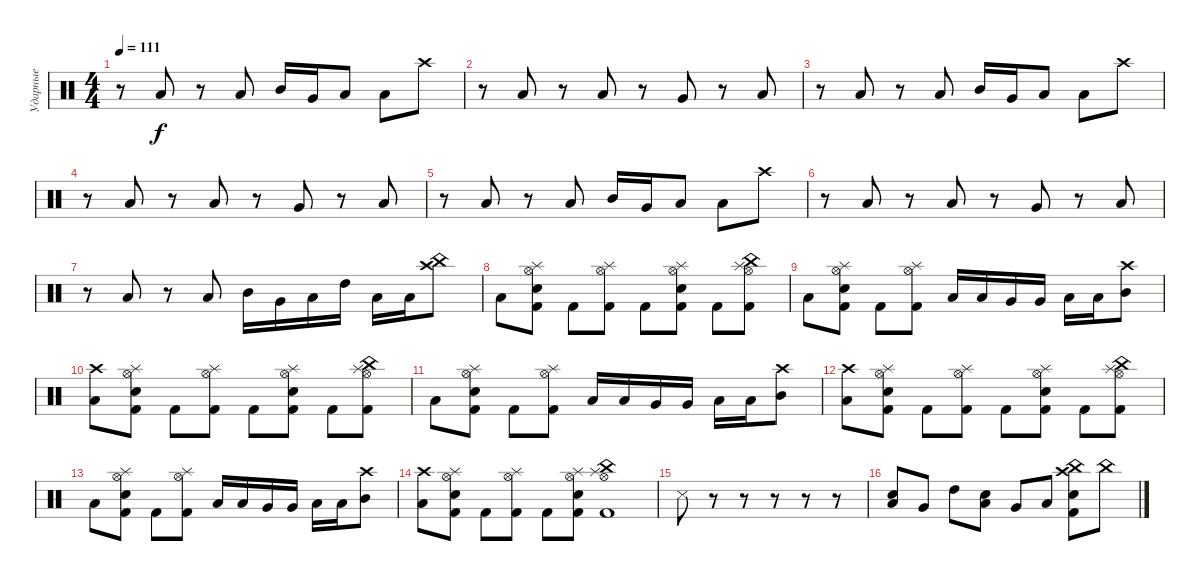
\track ("Ударные" "Ударные") {instrument percussion}
\staff {score}
\articulation defaults
\ts (4 4)
\tempo 111
\clef neutral
\ks c
r.8{dy f} "Low Floor Tom (hit)".8 r.8 "Low Tom (hit)".8 "Mid Tom (hit)".16 "Very Low Tom (hit)".16 "Low Floor Tom (hit)".8 "Low Tom (hit)".8 "Crash high (hit)".8 |
r.8 "Low Floor Tom (hit)".8 r.8 "Low Tom (hit)".8 r.8 "Very Low Tom (hit)".8 r.8 "Low Tom (hit)".8 |
r.8 "Low Floor Tom (hit)".8 r.8 "Low Tom (hit)".8 "Mid Tom (hit)".16 "Very Low Tom (hit)".16 "Low Floor Tom (hit)".8 "Low Tom (hit)".8 "Crash high (hit)".8 |
r.8 "Low Floor Tom (hit)".8 r.8 "Low Tom (hit)".8 r.8 "Very Low Tom (hit)".8 r.8 "Low Tom (hit)".8 |
r.8 "Low Floor Tom (hit)".8 r.8 "Low Tom (hit)".8 "Mid Tom (hit)".16 "Very Low Tom (hit)".16 "Low Floor Tom (hit)".8 "Low Tom (hit)".8 "Crash high (hit)".8 |
r.8 "Low Floor Tom (hit)".8 r.8 "Low Tom (hit)".8 r.8 "Very Low Tom (hit)".8 r.8 "Low Tom (hit)".8 |
r.8 "Low Floor Tom (hit)".8 r.8 "Low Tom (hit)".8 "Mid Tom (hit)".16 "Very Low Tom (hit)".16 "Low Floor Tom (hit)".16 "High Tom (hit)".16 "Low Tom (hit)".16 "Low Floor Tom (hit)".16 ("Crash high (hit)" "China (hit)").8 |
"Low Tom (hit)".8 ("Kick (hit) 2" "Electric Snare (hit)" "Hi-Hat (open)" "Splash (hit)").8 "Kick (hit) 2".8 ("Kick (hit) 2" "Hi-Hat (open)" "Splash (hit)").8 "Kick (hit) 2".8 ("Kick (hit) 2" "Electric Snare (hit)" "Hi-Hat (open)" "Splash (hit)").8 "Kick (hit) 2".8 ("Kick (hit) 2" "China (hit)" "Hi-Hat (open)" "Splash (hit)").8 |
"Low Tom (hit)".8 ("Kick (hit) 2" "Electric Snare (hit)" "Hi-Hat (open)" "Splash (hit)").8 "Kick (hit) 2".8 ("Kick (hit) 2" "Hi-Hat (open)" "Splash (hit)").8 "Low Tom (hit)".16 "Low Tom (hit)".16 "Very Low Tom (hit)".16 "Very Low Tom (hit)".16 "Low Floor Tom (hit)".16 "Low Floor Tom (hit)".16 ("Mid Tom (hit)" "Crash high (hit)").8 |
("Low Tom (hit)" "Crash high (hit)").8 ("Kick (hit) 2" "Electric Snare (hit)" "Hi-Hat (open)" "Splash (hit)").8 "Kick (hit) 2".8 ("Kick (hit) 2" "Hi-Hat (open)" "Splash (hit)").8 "Kick (hit) 2".8 ("Kick (hit) 2" "Electric Snare (hit)" "Hi-Hat (open)" "Splash (hit)").8 "Kick (hit) 2".8 ("Kick (hit) 2" "China (hit)" "Hi-Hat (open)" "Splash (hit)").8 |
"Low Tom (hit)".8 ("Kick (hit) 2" "Electric Snare (hit)" "Hi-Hat (open)" "Splash (hit)").8 "Kick (hit) 2".8 ("Kick (hit) 2" "Hi-Hat (open)" "Splash (hit)").8 "Low Tom (hit)".16 "Low Tom (hit)".16 "Very Low Tom (hit)".16 "Very Low Tom (hit)".16 "Low Floor Tom (hit)".16 "Low Floor Tom (hit)".16 ("Mid Tom (hit)" "Crash high (hit)").8 |
("Low Tom (hit)" "Crash high (hit)").8 ("Kick (hit) 2" "Electric Snare (hit)" "Hi-Hat (open)" "Splash (hit)").8 "Kick (hit) 2".8 ("Kick (hit) 2" "Hi-Hat (open)" "Splash (hit)").8 "Kick (hit) 2".8 ("Kick (hit) 2" "Electric Snare (hit)" "Hi-Hat (open)" "Splash (hit)").8 "Kick (hit) 2".8 ("Kick (hit) 2" "China (hit)" "Hi-Hat (open)" "Splash (hit)").8 |
"Low Tom (hit)".8 ("Kick (hit) 2" "Electric Snare (hit)" "Hi-Hat (open)" "Splash (hit)").8 "Kick (hit) 2".8 ("Kick (hit) 2" "Hi-Hat (open)" "Splash (hit)").8 "Low Tom (hit)".16 "Low Tom (hit)".16 "Very Low Tom (hit)".16 "Very Low Tom (hit)".16 "Low Floor Tom (hit)".16 "Low Floor Tom (hit)".16 ("Mid Tom (hit)" "Crash high (hit)").8 |
("Low Tom (hit)" "Crash high (hit)").8 ("Kick (hit) 2" "Electric Snare (hit)" "Hi-Hat (open)" "Splash (hit)").8 "Kick (hit) 2".8 ("Kick (hit) 2" "Hi-Hat (open)" "Splash (hit)").8 "Kick (hit) 2".8 ("Kick (hit) 2" "Electric Snare (hit)" "Hi-Hat (open)" "Splash (hit)").8 ("Kick (hit) 2" "China (hit)" "Hi-Hat (open)" "Splash (hit)").1 |
"Snare (side stick) 3".8 r.8 r.8 r.8 r.8 r.8 |
("Low Floor Tom (hit)" "Electric Snare (hit)").8 "Very Low Tom (hit)".8 "High Tom (hit)".8 ("Low Floor Tom (hit)" "Electric Snare (hit)").8 "Very Low Tom (hit)".8 "Low Floor Tom (hit)".8 ("Kick (hit) 2" "China (hit)" "Crash high (hit)" "Electric Snare (hit)").8 "China (hit)".8
